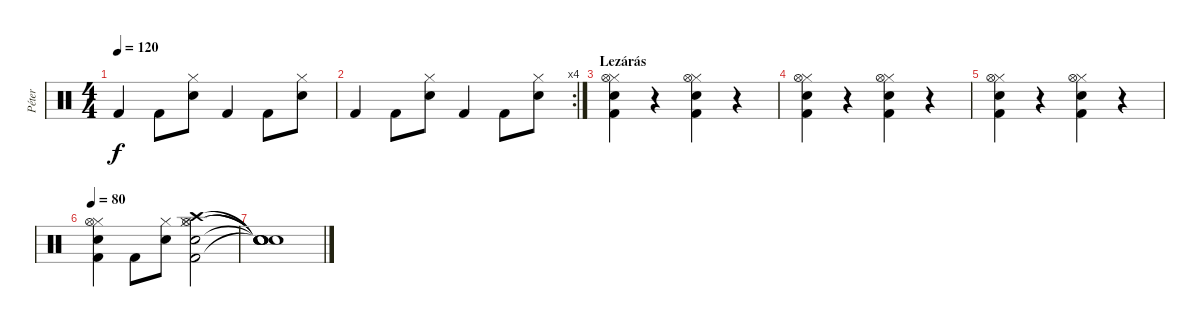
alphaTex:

\track ("Péter" "Péter") {instrument percussion}
\staff {score}
\articulation defaults
\ts (4 4)
\tempo 120
\clef neutral
\ks c "Kick (hit) 2".4{dy f} "Kick (hit) 2".8
("Hi-Hat (closed)" "Electric Snare (hit)").8 "Kick (hit) 2".4 "Kick (hit) 2".8 ("Hi-Hat (closed)" "Electric Snare (hit)").8 |
\rc 4 "Kick (hit) 2".4 "Kick (hit) 2".8
("Hi-Hat (closed)" "Electric Snare (hit)").8 "Kick (hit) 2".4 "Kick (hit) 2".8 ("Hi-Hat (closed)" "Electric Snare (hit)").8 |
\section ("" "Lezárás")
("Hi-Hat (closed)" "Electric Snare (hit)" "Kick (hit) 2" "Hi-Hat (open)").4 r.4 ("Hi-Hat (closed)" "Electric Snare (hit)" "Kick (hit) 2" "Hi-Hat (open)").4 r.4 |
("Hi-Hat (closed)" "Electric Snare (hit)" "Kick (hit) 2" "Hi-Hat (open)").4 r.4 ("Hi-Hat (closed)" "Electric Snare (hit)" "Kick (hit) 2" "Hi-Hat (open)").4 r.4 |
("Hi-Hat (closed)" "Electric Snare (hit)" "Kick (hit) 2" "Hi-Hat (open)").4 r.4 ("Hi-Hat (closed)" "Electric Snare (hit)" "Kick (hit) 2" "Hi-Hat (open)").4 r.4 |
\tempo 80
("Electric Snare (hit)" "Hi-Hat (closed)" "Kick (hit) 2" "Hi-Hat (open)").4 "Kick (hit) 2".8 ("Hi-Hat (closed)" "Electric Snare (hit)").8 ("Kick (hit) 2" "Electric Snare (hit)" "Hi-Hat (closed)" "Hi-Hat (open)" "Crash high (hit)").2 |
("Snare (hit)"{t} "Snare (hit)"{t} "Snare (hit)"{t} "Snare (hit)"{t} "Snare (hit)"{t}).1
